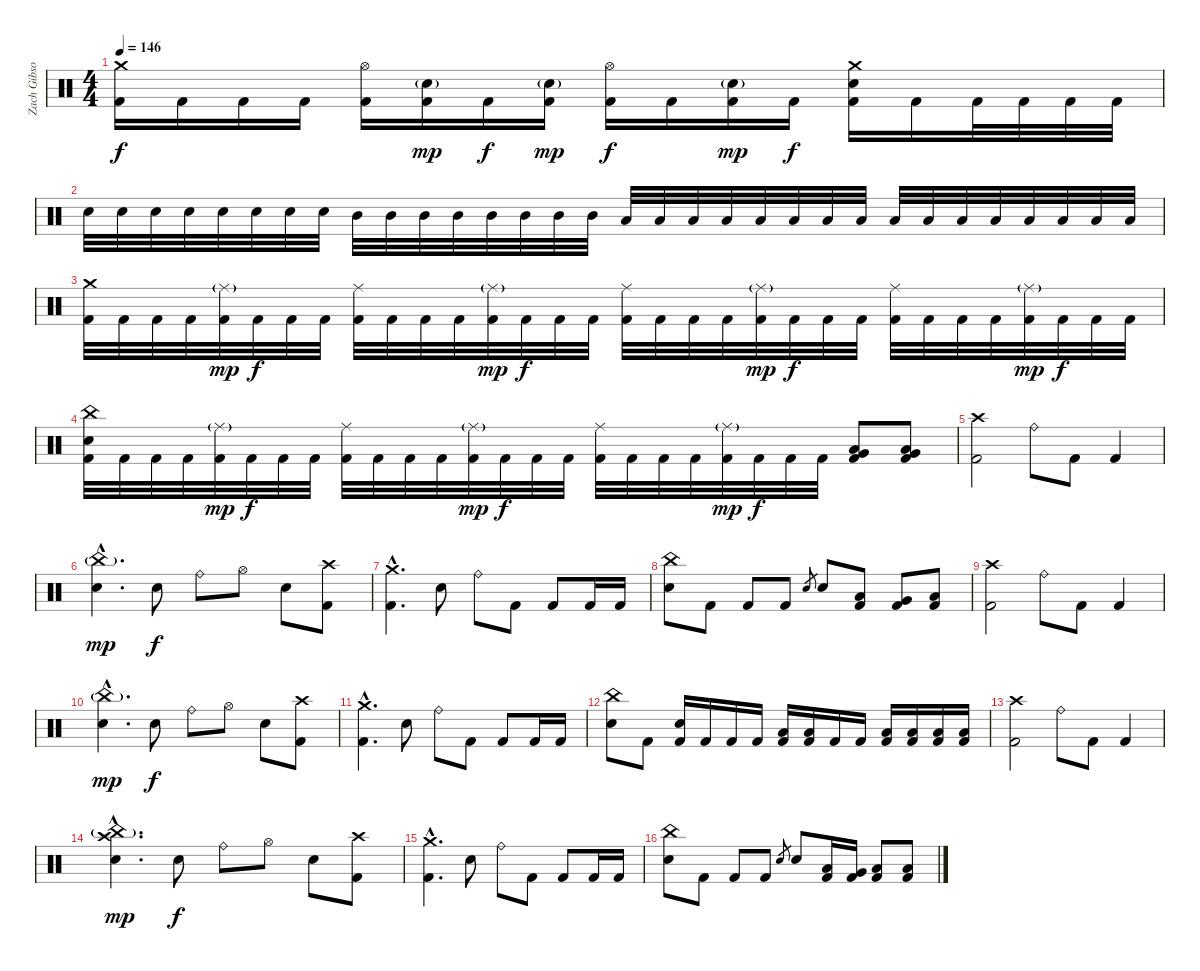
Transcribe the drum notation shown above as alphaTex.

\track ("Zach Gibson (Drums)" "Zach Gibso") {instrument percussion}
\staff {score}
\articulation defaults
\ts (4 4)
\tempo 146
\clef neutral
\ks c
("Crash medium (hit)" "Kick (hit) 2").16{dy f} "Kick (hit) 2".16 "Kick (hit) 2".16 "Kick (hit) 2".16 ("Hi-Hat (open)" "Kick (hit) 2").16 ("Snare (hit) 2"{g} "Kick (hit) 2").16{dy mp} "Kick (hit) 2".16{dy f} ("Snare (hit) 2"{g} "Kick (hit) 2").16{dy mp} ("Hi-Hat (open)" "Kick (hit) 2").16{dy f} "Kick (hit) 2".16 ("Snare (hit) 2"{g} "Kick (hit) 2").16{dy mp} "Kick (hit) 2".16{dy f} ("Snare (hit) 2" "Crash medium (hit)" "Kick (hit) 2").16 "Kick (hit) 2".16 "Kick (hit) 2".32 "Kick (hit) 2".32 "Kick (hit) 2".32 "Kick (hit) 2".32 |
"Snare (hit) 2".32 "Snare (hit) 2".32 "Snare (hit) 2".32 "Snare (hit) 2".32 "Snare (hit) 2".32 "Snare (hit) 2".32 "Snare (hit) 2".32 "Snare (hit) 2".32 "Mid Tom (hit)".32 "Mid Tom (hit)".32 "Mid Tom (hit)".32 "Mid Tom (hit)".32 "Mid Tom (hit)".32 "Mid Tom (hit)".32 "Mid Tom (hit)".32 "Mid Tom (hit)".32 "Low Tom (hit)".32 "Low Tom (hit)".32 "Low Tom (hit)".32 "Low Tom (hit)".32 "Low Tom (hit)".32 "Low Tom (hit)".32 "Low Tom (hit)".32 "Low Tom (hit)".32 "Low Floor Tom (hit)".32 "Low Floor Tom (hit)".32 "Low Floor Tom (hit)".32 "Low Floor Tom (hit)".32 "Low Floor Tom (hit)".32 "Low Floor Tom (hit)".32 "Low Floor Tom (hit)".32 "Low Floor Tom (hit)".32 |
("Crash medium (hit)" "Kick (hit) 2").32 "Kick (hit) 2".32 "Kick (hit) 2".32 "Kick (hit) 2".32 ("Ride (middle)"{g} "Kick (hit) 2").32{dy mp} "Kick (hit) 2".32{dy f} "Kick (hit) 2".32 "Kick (hit) 2".32 ("Ride (middle)" "Kick (hit) 2").32 "Kick (hit) 2".32 "Kick (hit) 2".32 "Kick (hit) 2".32 ("Ride (middle)"{g} "Kick (hit) 2").32{dy mp} "Kick (hit) 2".32{dy f} "Kick (hit) 2".32 "Kick (hit) 2".32 ("Ride (middle)" "Kick (hit) 2").32 "Kick (hit) 2".32 "Kick (hit) 2".32 "Kick (hit) 2".32 ("Ride (middle)"{g} "Kick (hit) 2").32{dy mp} "Kick (hit) 2".32{dy f} "Kick (hit) 2".32 "Kick (hit) 2".32 ("Ride (middle)" "Kick (hit) 2").32 "Kick (hit) 2".32 "Kick (hit) 2".32 "Kick (hit) 2".32 ("Ride (middle)"{g} "Kick (hit) 2").32{dy mp} "Kick (hit) 2".32{dy f} "Kick (hit) 2".32 "Kick (hit) 2".32 |
("China (hit)" "Snare (hit) 2" "Kick (hit) 2").32 "Kick (hit) 2".32 "Kick (hit) 2".32 "Kick (hit) 2".32 ("Ride (middle)"{g} "Kick (hit) 2").32{dy mp} "Kick (hit) 2".32{dy f} "Kick (hit) 2".32 "Kick (hit) 2".32 ("Ride (middle)" "Kick (hit) 2").32 "Kick (hit) 2".32 "Kick (hit) 2".32 "Kick (hit) 2".32 ("Ride (middle)"{g} "Kick (hit) 2").32{dy mp} "Kick (hit) 2".32{dy f} "Kick (hit) 2".32 "Kick (hit) 2".32 ("Ride (middle)" "Kick (hit) 2").32 "Kick (hit) 2".32 "Kick (hit) 2".32 "Kick (hit) 2".32 ("Ride (middle)"{g} "Kick (hit) 2").32{dy mp} "Kick (hit) 2".32{dy f} "Kick (hit) 2".32 "Kick (hit) 2".32 ("Low Tom (hit)" "Very Low Tom (hit)" "Kick (hit) 2").8 ("Very Low Tom (hit)" "Low Floor Tom (hit)" "Kick (hit) 2").8 |
("Crash high (hit)" "Kick (hit) 2").2 "Ride (bell)".8 "Kick (hit) 2".8 "Kick (hit) 2".4 |
("China (hit)"{g hac} "Snare (hit) 2"{hac}).4{d dy mp} "Snare (hit) 2".8{dy f} "Ride (bell)".8 "Hi-Hat (open)".8 "Snare (hit) 2".8 ("Crash high (hit)" "Kick (hit) 2").8 |
("Crash medium (hit)"{hac} "Kick (hit) 2"{hac}).4{d} "Snare (hit) 2".8 "Ride (bell)".8 "Kick (hit) 2".8 "Kick (hit) 2".8 "Kick (hit) 2".16 "Kick (hit) 2".16 |
("China (hit)" "Snare (hit) 2").8 "Kick (hit) 2".8 "Kick (hit) 2".8 "Kick (hit) 2".8 "Snare (hit) 2".8{gr} "Snare (hit) 2".8 ("Low Tom (hit)" "Kick (hit) 2").8 ("Very Low Tom (hit)" "Kick (hit) 2").8 ("Low Floor Tom (hit)" "Kick (hit) 2").8 |
("Crash high (hit)" "Kick (hit) 2").2 "Ride (bell)".8 "Kick (hit) 2".8 "Kick (hit) 2".4 |
("China (hit)"{g hac} "Snare (hit) 2"{hac}).4{d dy mp} "Snare (hit) 2".8{dy f} "Ride (bell)".8 "Hi-Hat (open)".8 "Snare (hit) 2".8 ("Crash high (hit)" "Kick (hit) 2").8 |
("Crash medium (hit)"{hac} "Kick (hit) 2"{hac}).4{d} "Snare (hit) 2".8 "Ride (bell)".8 "Kick (hit) 2".8 "Kick (hit) 2".8 "Kick (hit) 2".16 "Kick (hit) 2".16 |
("China (hit)" "Snare (hit) 2").8 "Kick (hit) 2".8 ("Snare (hit) 2" "Kick (hit) 2").16 "Kick (hit) 2".16 "Kick (hit) 2".16 "Kick (hit) 2".16 ("Low Tom (hit)" "Kick (hit) 2").16 ("Low Tom (hit)" "Kick (hit) 2").16 "Kick (hit) 2".16 "Kick (hit) 2".16 ("Low Floor Tom (hit)" "Kick (hit) 2").16 ("Low Floor Tom (hit)" "Kick (hit) 2").16 ("Low Floor Tom (hit)" "Kick (hit) 2").16 ("Low Floor Tom (hit)" "Kick (hit) 2").16 |
("Crash high (hit)" "Kick (hit) 2").2 "Ride (bell)".8 "Kick (hit) 2".8 "Kick (hit) 2".4 |
("Crash high (hit)"{hac} "China (hit)"{g hac} "Snare (hit) 2"{hac}).4{d dy mp} "Snare (hit) 2".8{dy f} "Ride (bell)".8 "Hi-Hat (open)".8 "Snare (hit) 2".8 ("Crash high (hit)" "Kick (hit) 2").8 |
("Crash medium (hit)"{hac} "Kick (hit) 2"{hac}).4{d} "Snare (hit) 2".8 "Ride (bell)".8 "Kick (hit) 2".8 "Kick (hit) 2".8 "Kick (hit) 2".16 "Kick (hit) 2".16 |
("China (hit)" "Snare (hit) 2").8 "Kick (hit) 2".8 "Kick (hit) 2".8 "Kick (hit) 2".8 "Snare (hit) 2".8{gr} "Snare (hit) 2".8 ("Low Tom (hit)" "Kick (hit) 2").16 ("Very Low Tom (hit)" "Kick (hit) 2").16 ("Low Floor Tom (hit)" "Kick (hit) 2").8 ("Low Floor Tom (hit)" "Kick (hit) 2").8
